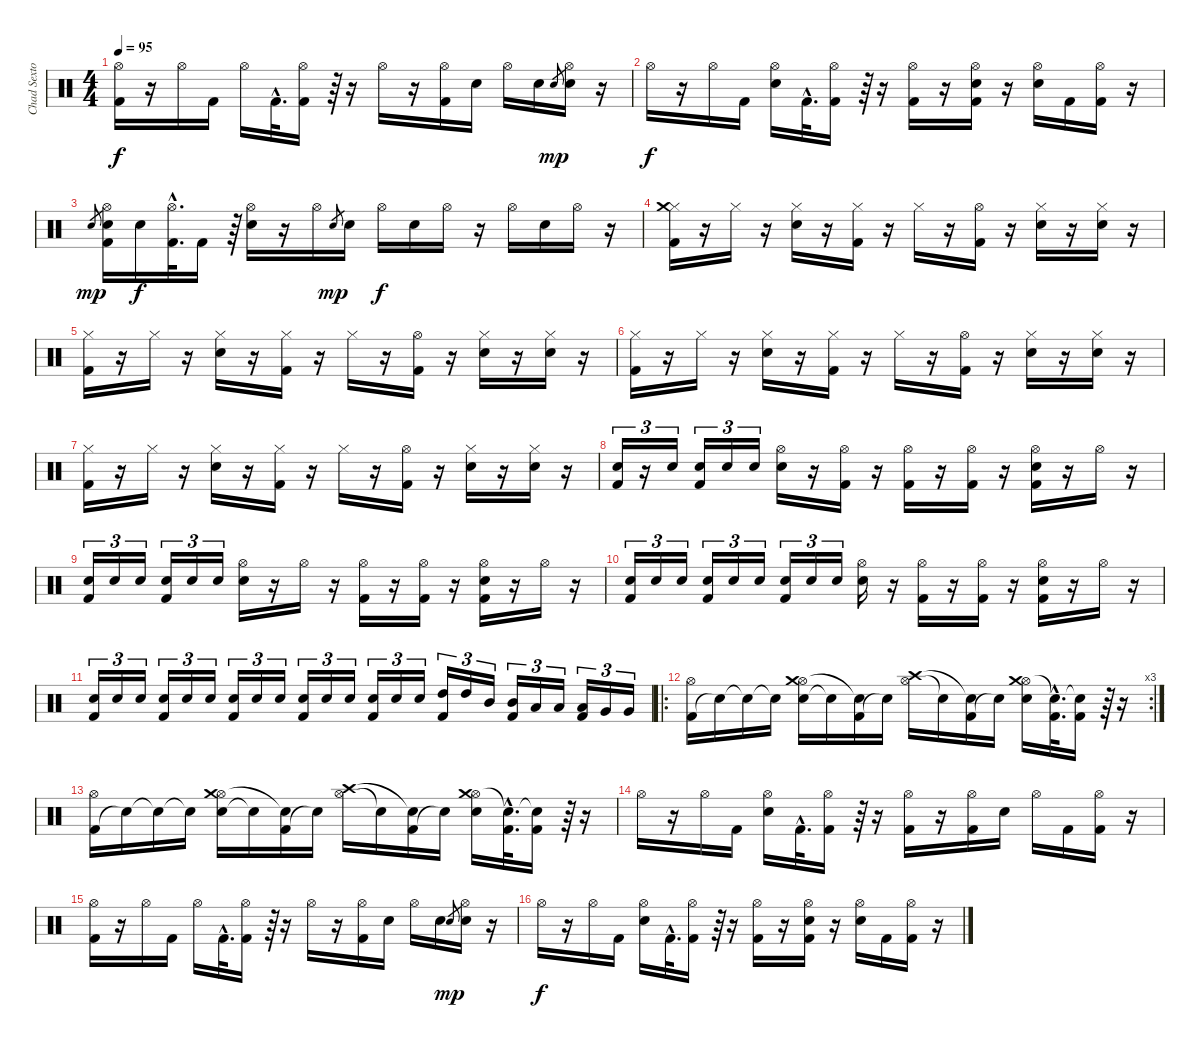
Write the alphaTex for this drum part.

\track ("Chad Sexton" "Chad Sexto") {instrument percussion}
\staff {score}
\articulation defaults
\ts (4 4)
\tempo 95
\clef neutral
\ks c
("Hi-Hat (open)" "Kick (hit) 2").16{dy f} r.16 "Hi-Hat (open)".16 "Kick (hit) 2".16 "Hi-Hat (open)".16 "Kick (hit) 2"{hac}.32{d} ("Hi-Hat (open)" "Kick (hit) 2").16 r.64 r.16 "Hi-Hat (open)".16 r.16 ("Hi-Hat (open)" "Kick (hit) 2").16 "Electric Snare (hit)".16 "Hi-Hat (open)".16 "Electric Snare (hit)".16 "Electric Snare (hit)".8{gr dy mp} ("Hi-Hat (open)" "Electric Snare (hit)").16 r.16 |
"Hi-Hat (open)".16{dy f} r.16 "Hi-Hat (open)".16 "Kick (hit) 2".16 ("Hi-Hat (open)" "Electric Snare (hit)").16 "Kick (hit) 2"{hac}.32{d} ("Hi-Hat (open)" "Kick (hit) 2").16 r.64 r.16 ("Hi-Hat (open)" "Kick (hit) 2").16 r.16 ("Hi-Hat (open)" "Electric Snare (hit)" "Kick (hit) 2").16 r.16 ("Hi-Hat (open)" "Electric Snare (hit)").16 "Kick (hit) 2".16 ("Hi-Hat (open)" "Kick (hit) 2").16 r.16 |
"Electric Snare (hit)".8{gr dy mp} ("Hi-Hat (open)" "Kick (hit) 2" "Electric Snare (hit)").16 "Electric Snare (hit)".16{dy f} ("Hi-Hat (open)"{hac} "Kick (hit) 2"{hac}).32{d} "Kick (hit) 2".16 r.64 ("Hi-Hat (open)" "Electric Snare (hit)").16 r.16 "Hi-Hat (open)".16 "Electric Snare (hit)".8{gr dy mp} "Electric Snare (hit)".16 "Hi-Hat (open)".16{dy f} "Electric Snare (hit)".16 "Hi-Hat (open)".16 r.16 "Hi-Hat (open)".16 "Electric Snare (hit)".16 "Hi-Hat (open)".16 r.16 |
("Hi-Hat (closed)" "Crash medium (hit)" "Kick (hit) 2").16 r.16 "Hi-Hat (closed)".16 r.16 ("Hi-Hat (closed)" "Electric Snare (hit)").16 r.16 ("Hi-Hat (closed)" "Kick (hit) 2").16 r.16 "Hi-Hat (closed)".16 r.16 ("Hi-Hat (open)" "Kick (hit) 2").16 r.16 ("Hi-Hat (closed)" "Electric Snare (hit)").16 r.16 ("Hi-Hat (closed)" "Electric Snare (hit)").16 r.16 |
("Hi-Hat (closed)" "Kick (hit) 2").16 r.16 "Hi-Hat (closed)".16 r.16 ("Hi-Hat (closed)" "Electric Snare (hit)").16 r.16 ("Hi-Hat (closed)" "Kick (hit) 2").16 r.16 "Hi-Hat (closed)".16 r.16 ("Hi-Hat (open)" "Kick (hit) 2").16 r.16 ("Hi-Hat (closed)" "Electric Snare (hit)").16 r.16 ("Hi-Hat (closed)" "Electric Snare (hit)").16 r.16 |
("Hi-Hat (closed)" "Kick (hit) 2").16 r.16 "Hi-Hat (closed)".16 r.16 ("Hi-Hat (closed)" "Electric Snare (hit)").16 r.16 ("Hi-Hat (closed)" "Kick (hit) 2").16 r.16 "Hi-Hat (closed)".16 r.16 ("Hi-Hat (open)" "Kick (hit) 2").16 r.16 ("Hi-Hat (closed)" "Electric Snare (hit)").16 r.16 ("Hi-Hat (closed)" "Electric Snare (hit)").16 r.16 |
("Hi-Hat (closed)" "Kick (hit) 2").16 r.16 "Hi-Hat (closed)".16 r.16 ("Hi-Hat (closed)" "Electric Snare (hit)").16 r.16 ("Hi-Hat (closed)" "Kick (hit) 2").16 r.16 "Hi-Hat (closed)".16 r.16 ("Hi-Hat (open)" "Kick (hit) 2").16 r.16 ("Hi-Hat (closed)" "Electric Snare (hit)").16 r.16 ("Hi-Hat (closed)" "Electric Snare (hit)").16 r.16 |
("Kick (hit) 2" "Electric Snare (hit)").16{tu (3 2)} r.16{tu (3 2)} "Electric Snare (hit)".16{tu (3 2)} ("Kick (hit) 2" "Electric Snare (hit)").16{tu (3 2)} "Electric Snare (hit)".16{tu (3 2)} "Electric Snare (hit)".16{tu (3 2)} ("Hi-Hat (open)" "Electric Snare (hit)").16 r.16 ("Hi-Hat (open)" "Kick (hit) 2").16 r.16 ("Kick (hit) 2" "Hi-Hat (open)").16 r.16 ("Kick (hit) 2" "Hi-Hat (open)").16 r.16 ("Kick (hit) 2" "Hi-Hat (open)" "Electric Snare (hit)").16 r.16 "Hi-Hat (open)".16 r.16 |
("Kick (hit) 2" "Electric Snare (hit)").16{tu (3 2)} "Electric Snare (hit)".16{tu (3 2)} "Electric Snare (hit)".16{tu (3 2)} ("Kick (hit) 2" "Electric Snare (hit)").16{tu (3 2)} "Electric Snare (hit)".16{tu (3 2)} "Electric Snare (hit)".16{tu (3 2)} ("Hi-Hat (open)" "Electric Snare (hit)").16 r.16 "Hi-Hat (open)".16 r.16 ("Hi-Hat (open)" "Kick (hit) 2").16 r.16 ("Hi-Hat (open)" "Kick (hit) 2").16 r.16 ("Kick (hit) 2" "Hi-Hat (open)" "Electric Snare (hit)").16 r.16 "Hi-Hat (open)".16 r.16 |
("Kick (hit) 2" "Electric Snare (hit)").16{tu (3 2)} "Electric Snare (hit)".16{tu (3 2)} "Electric Snare (hit)".16{tu (3 2)} ("Kick (hit) 2" "Electric Snare (hit)").16{tu (3 2)} "Electric Snare (hit)".16{tu (3 2)} "Electric Snare (hit)".16{tu (3 2)} ("Kick (hit) 2" "Electric Snare (hit)").16{tu (3 2)} "Electric Snare (hit)".16{tu (3 2)} "Electric Snare (hit)".16{tu (3 2)} ("Hi-Hat (open)" "Electric Snare (hit)").16 r.16 ("Hi-Hat (open)" "Kick (hit) 2").16 r.16 ("Kick (hit) 2" "Hi-Hat (open)").16 r.16 ("Kick (hit) 2" "Hi-Hat (open)" "Electric Snare (hit)").16 r.16 "Hi-Hat (open)".16 r.16 |
("Kick (hit) 2" "Electric Snare (hit)").16{tu (3 2)} "Electric Snare (hit)".16{tu (3 2)} "Electric Snare (hit)".16{tu (3 2)} ("Kick (hit) 2" "Electric Snare (hit)").16{tu (3 2)} "Electric Snare (hit)".16{tu (3 2)} "Electric Snare (hit)".16{tu (3 2)} ("Kick (hit) 2" "Electric Snare (hit)").16{tu (3 2)} "Electric Snare (hit)".16{tu (3 2)} "Electric Snare (hit)".16{tu (3 2)} ("Kick (hit) 2" "Electric Snare (hit)").16{tu (3 2)} "Electric Snare (hit)".16{tu (3 2)} "Electric Snare (hit)".16{tu (3 2)} ("Kick (hit) 2" "Electric Snare (hit)").16{tu (3 2)} "Electric Snare (hit)".16{tu (3 2)} "Electric Snare (hit)".16{tu (3 2)} ("Kick (hit) 2" "High Tom (hit)").16{tu (3 2)} "High Tom (hit)".16{tu (3 2)} "Mid Tom (hit)".16{tu (3 2)} ("Kick (hit) 2" "Mid Tom (hit)").16{tu (3 2)} "Low Tom (hit)".16{tu (3 2)} "Low Tom (hit)".16{tu (3 2)} ("Kick (hit) 2" "Low Tom (hit)").16{tu (3 2)} "Very Low Tom (hit)".16{tu (3 2)} "Very Low Tom (hit)".16{tu (3 2)} |
\ro
\rc 3
("Kick (hit) 2" "Hi-Hat (open)").16 "Snare (hit)"{t}.16 "Snare (hit)"{t}.16 "Snare (hit)"{t}.16 ("Electric Snare (hit)" "Hi-Hat (open)" "Crash medium (hit)").16 "Snare (hit)"{t}.16 ("Kick (hit) 2" "Snare (hit)"{t}).16 "Snare (hit)"{t}.16 ("Hi-Hat (open)" "Crash high (hit)").16 "Snare (hit)"{t}.16 ("Kick (hit) 2" "Snare (hit)"{t}).16 "Snare (hit)"{t}.16 ("Electric Snare (hit)" "Hi-Hat (open)" "Crash medium (hit)").16 ("Kick (hit) 2"{hac} "Snare (hit)"{hac t}).32{d} ("Kick (hit) 2" "Snare (hit)"{t}).16 r.64 r.16 |
("Kick (hit) 2" "Hi-Hat (open)").16 "Snare (hit)"{t}.16 "Snare (hit)"{t}.16 "Snare (hit)"{t}.16 ("Electric Snare (hit)" "Hi-Hat (open)" "Crash medium (hit)").16 "Snare (hit)"{t}.16 ("Kick (hit) 2" "Snare (hit)"{t}).16 "Snare (hit)"{t}.16 ("Hi-Hat (open)" "Crash high (hit)").16 "Snare (hit)"{t}.16 ("Kick (hit) 2" "Snare (hit)"{t}).16 "Snare (hit)"{t}.16 ("Electric Snare (hit)" "Hi-Hat (open)" "Crash medium (hit)").16 ("Kick (hit) 2"{hac} "Snare (hit)"{hac t}).32{d} ("Kick (hit) 2" "Snare (hit)"{t}).16 r.64 r.16 |
"Hi-Hat (open)".16 r.16 "Hi-Hat (open)".16 "Kick (hit) 2".16 ("Hi-Hat (open)" "Electric Snare (hit)").16 "Kick (hit) 2"{hac}.32{d} ("Hi-Hat (open)" "Kick (hit) 2").16 r.64 r.16 ("Hi-Hat (open)" "Kick (hit) 2").16 r.16 ("Hi-Hat (open)" "Kick (hit) 2").16 "Electric Snare (hit)".16 "Hi-Hat (open)".16 "Kick (hit) 2".16 ("Hi-Hat (open)" "Kick (hit) 2").16 r.16 |
("Hi-Hat (open)" "Kick (hit) 2").16 r.16 "Hi-Hat (open)".16 "Kick (hit) 2".16 "Hi-Hat (open)".16 "Kick (hit) 2"{hac}.32{d} ("Hi-Hat (open)" "Kick (hit) 2").16 r.64 r.16 "Hi-Hat (open)".16 r.16 ("Hi-Hat (open)" "Kick (hit) 2").16 "Electric Snare (hit)".16 "Hi-Hat (open)".16 "Electric Snare (hit)".16 "Electric Snare (hit)".8{gr dy mp} ("Hi-Hat (open)" "Electric Snare (hit)").16 r.16 |
"Hi-Hat (open)".16{dy f} r.16 "Hi-Hat (open)".16 "Kick (hit) 2".16 ("Hi-Hat (open)" "Electric Snare (hit)").16 "Kick (hit) 2"{hac}.32{d} ("Hi-Hat (open)" "Kick (hit) 2").16 r.64 r.16 ("Hi-Hat (open)" "Kick (hit) 2").16 r.16 ("Hi-Hat (open)" "Electric Snare (hit)" "Kick (hit) 2").16 r.16 ("Hi-Hat (open)" "Electric Snare (hit)").16 "Kick (hit) 2".16 ("Hi-Hat (open)" "Kick (hit) 2").16 r.16
